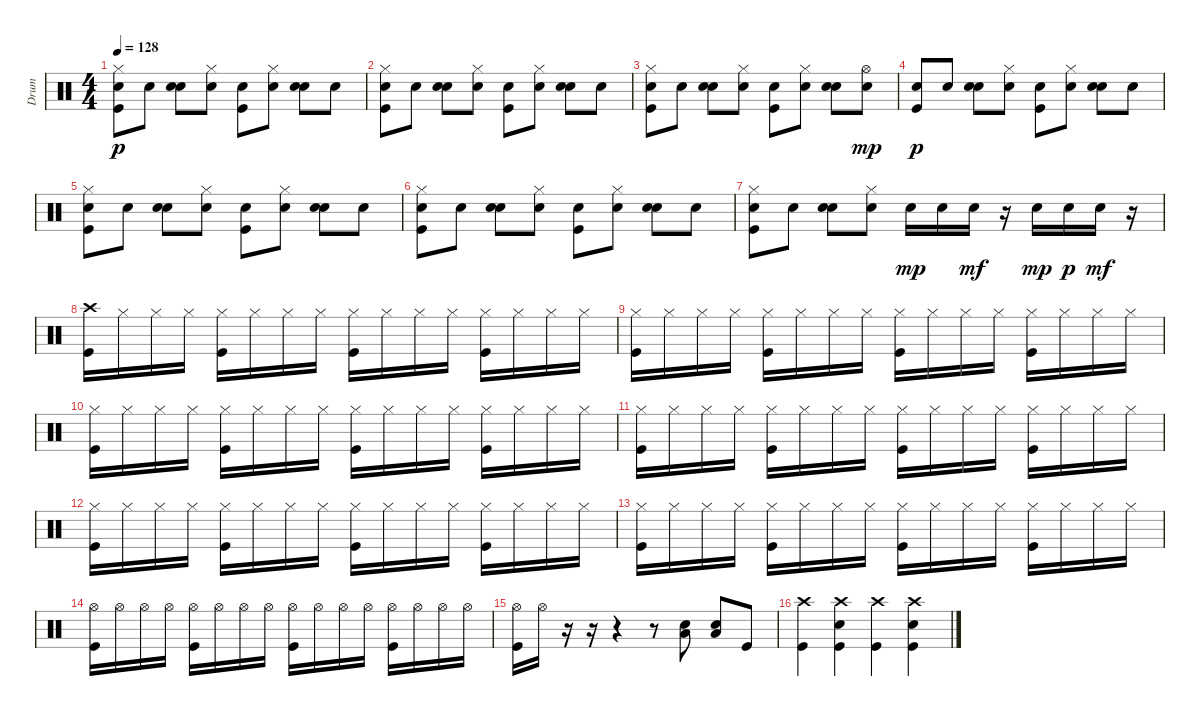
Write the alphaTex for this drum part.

\track ("Drum" "Drum") {instrument percussion}
\staff {score}
\articulation defaults
\ts (4 4)
\tempo 128
\clef neutral
\ks c
("Snare (hit) 2" "Kick (hit)" "Hi-Hat (closed)").8{dy p} "Snare (hit) 2".8 ("Snare (hit) 2" "Snare (hit) 2").8 ("Snare (hit) 2" "Hi-Hat (closed)").8 ("Snare (hit) 2" "Kick (hit)").8 ("Snare (hit) 2" "Hi-Hat (closed)").8 ("Snare (hit) 2" "Snare (hit) 2").8 "Snare (hit) 2".8 |
("Snare (hit) 2" "Kick (hit)" "Hi-Hat (closed)").8 "Snare (hit) 2".8 ("Snare (hit) 2" "Snare (hit) 2").8 ("Snare (hit) 2" "Hi-Hat (closed)").8 ("Snare (hit) 2" "Kick (hit)").8 ("Snare (hit) 2" "Hi-Hat (closed)").8 ("Snare (hit) 2" "Snare (hit) 2").8 "Snare (hit) 2".8 |
("Snare (hit) 2" "Kick (hit)" "Hi-Hat (closed)").8 "Snare (hit) 2".8 ("Snare (hit) 2" "Snare (hit) 2").8 ("Snare (hit) 2" "Hi-Hat (closed)").8 ("Snare (hit) 2" "Kick (hit)").8 ("Snare (hit) 2" "Hi-Hat (closed)").8 ("Snare (hit) 2" "Snare (hit) 2").8 ("Snare (hit) 2" "Hi-Hat (open)").8{dy mp} |
("Snare (hit) 2" "Kick (hit)").8{dy p} "Snare (hit) 2".8 ("Snare (hit) 2" "Snare (hit) 2").8 ("Snare (hit) 2" "Hi-Hat (closed)").8 ("Snare (hit) 2" "Kick (hit)").8 ("Snare (hit) 2" "Hi-Hat (closed)").8 ("Snare (hit) 2" "Snare (hit) 2").8 "Snare (hit) 2".8 |
("Snare (hit) 2" "Kick (hit)" "Hi-Hat (closed)").8 "Snare (hit) 2".8 ("Snare (hit) 2" "Snare (hit) 2").8 ("Snare (hit) 2" "Hi-Hat (closed)").8 ("Snare (hit) 2" "Kick (hit)").8 ("Snare (hit) 2" "Hi-Hat (closed)").8 ("Snare (hit) 2" "Snare (hit) 2").8 "Snare (hit) 2".8 |
("Snare (hit) 2" "Kick (hit)" "Hi-Hat (closed)").8 "Snare (hit) 2".8 ("Snare (hit) 2" "Snare (hit) 2").8 ("Snare (hit) 2" "Hi-Hat (closed)").8 ("Snare (hit) 2" "Kick (hit)").8 ("Snare (hit) 2" "Hi-Hat (closed)").8 ("Snare (hit) 2" "Snare (hit) 2").8 "Snare (hit) 2".8 |
("Snare (hit) 2" "Kick (hit)" "Hi-Hat (closed)").8 "Snare (hit) 2".8 ("Snare (hit) 2" "Snare (hit) 2").8 ("Snare (hit) 2" "Hi-Hat (closed)").8 "Snare (hit) 2".16{dy mp} "Snare (hit) 2".16 "Snare (hit) 2".16{dy mf} r.16 "Snare (hit) 2".16{dy mp} "Snare (hit) 2".16{dy p} "Snare (hit) 2".16{dy mf} r.16 |
("Crash high (hit)" "Kick (hit)").16 "Hi-Hat (closed)".16 "Hi-Hat (closed)".16 "Hi-Hat (closed)".16 ("Hi-Hat (closed)" "Kick (hit)").16 "Hi-Hat (closed)".16 "Hi-Hat (closed)".16 "Hi-Hat (closed)".16 ("Hi-Hat (closed)" "Kick (hit)").16 "Hi-Hat (closed)".16 "Hi-Hat (closed)".16 "Hi-Hat (closed)".16 ("Hi-Hat (closed)" "Kick (hit)").16 "Hi-Hat (closed)".16 "Hi-Hat (closed)".16 "Hi-Hat (closed)".16 |
("Hi-Hat (closed)" "Kick (hit)").16 "Hi-Hat (closed)".16 "Hi-Hat (closed)".16 "Hi-Hat (closed)".16 ("Hi-Hat (closed)" "Kick (hit)").16 "Hi-Hat (closed)".16 "Hi-Hat (closed)".16 "Hi-Hat (closed)".16 ("Hi-Hat (closed)" "Kick (hit)").16 "Hi-Hat (closed)".16 "Hi-Hat (closed)".16 "Hi-Hat (closed)".16 ("Hi-Hat (closed)" "Kick (hit)").16 "Hi-Hat (closed)".16 "Hi-Hat (closed)".16 "Hi-Hat (closed)".16 |
("Hi-Hat (closed)" "Kick (hit)").16 "Hi-Hat (closed)".16 "Hi-Hat (closed)".16 "Hi-Hat (closed)".16 ("Hi-Hat (closed)" "Kick (hit)").16 "Hi-Hat (closed)".16 "Hi-Hat (closed)".16 "Hi-Hat (closed)".16 ("Hi-Hat (closed)" "Kick (hit)").16 "Hi-Hat (closed)".16 "Hi-Hat (closed)".16 "Hi-Hat (closed)".16 ("Hi-Hat (closed)" "Kick (hit)").16 "Hi-Hat (closed)".16 "Hi-Hat (closed)".16 "Hi-Hat (closed)".16 |
("Hi-Hat (closed)" "Kick (hit)").16 "Hi-Hat (closed)".16 "Hi-Hat (closed)".16 "Hi-Hat (closed)".16 ("Hi-Hat (closed)" "Kick (hit)").16 "Hi-Hat (closed)".16 "Hi-Hat (closed)".16 "Hi-Hat (closed)".16 ("Hi-Hat (closed)" "Kick (hit)").16 "Hi-Hat (closed)".16 "Hi-Hat (closed)".16 "Hi-Hat (closed)".16 ("Hi-Hat (closed)" "Kick (hit)").16 "Hi-Hat (closed)".16 "Hi-Hat (closed)".16 "Hi-Hat (closed)".16 |
("Hi-Hat (closed)" "Kick (hit)").16 "Hi-Hat (closed)".16 "Hi-Hat (closed)".16 "Hi-Hat (closed)".16 ("Hi-Hat (closed)" "Kick (hit)").16 "Hi-Hat (closed)".16 "Hi-Hat (closed)".16 "Hi-Hat (closed)".16 ("Hi-Hat (closed)" "Kick (hit)").16 "Hi-Hat (closed)".16 "Hi-Hat (closed)".16 "Hi-Hat (closed)".16 ("Hi-Hat (closed)" "Kick (hit)").16 "Hi-Hat (closed)".16 "Hi-Hat (closed)".16 "Hi-Hat (closed)".16 |
("Hi-Hat (closed)" "Kick (hit)").16 "Hi-Hat (closed)".16 "Hi-Hat (closed)".16 "Hi-Hat (closed)".16 ("Hi-Hat (closed)" "Kick (hit)").16 "Hi-Hat (closed)".16 "Hi-Hat (closed)".16 "Hi-Hat (closed)".16 ("Hi-Hat (closed)" "Kick (hit)").16 "Hi-Hat (closed)".16 "Hi-Hat (closed)".16 "Hi-Hat (closed)".16 ("Hi-Hat (closed)" "Kick (hit)").16 "Hi-Hat (closed)".16 "Hi-Hat (closed)".16 "Hi-Hat (closed)".16 |
("Hi-Hat (open)" "Kick (hit)").16 "Hi-Hat (open)".16 "Hi-Hat (open)".16 "Hi-Hat (open)".16 ("Hi-Hat (open)" "Kick (hit)").16 "Hi-Hat (open)".16 "Hi-Hat (open)".16 "Hi-Hat (open)".16 ("Hi-Hat (open)" "Kick (hit)").16 "Hi-Hat (open)".16 "Hi-Hat (open)".16 "Hi-Hat (open)".16 ("Hi-Hat (open)" "Kick (hit)").16 "Hi-Hat (open)".16 "Hi-Hat (open)".16 "Hi-Hat (open)".16 |
("Hi-Hat (open)" "Kick (hit)").16 "Hi-Hat (open)".16 r.16 r.16 r.4 r.8 ("Snare (hit) 2" "Low Floor Tom (hit)").8 ("Snare (hit) 2" "Low Floor Tom (hit)").8 "Kick (hit)".8 |
("Crash high (hit)" "Kick (hit)").4 ("Crash high (hit)" "Kick (hit)" "Snare (hit) 2").4 ("Crash high (hit)" "Kick (hit)").4 ("Crash high (hit)" "Kick (hit)" "Snare (hit) 2").4
